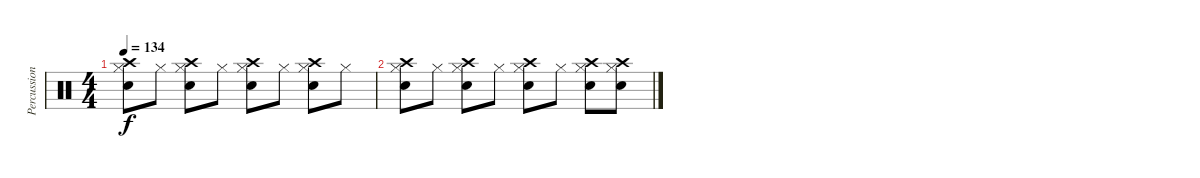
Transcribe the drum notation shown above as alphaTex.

\track ("Percussions" "Percussion") {instrument percussion}
\staff {score}
\articulation defaults
\ts (4 4)
\tempo 134
\clef neutral
\ks c
("Snare (hit) 2" "Hi-Hat (closed)" "Crash high (hit)").8{dy f} "Hi-Hat (closed)".8 ("Snare (hit) 2" "Hi-Hat (closed)" "Crash high (hit)").8 "Hi-Hat (closed)".8 ("Snare (hit) 2" "Hi-Hat (closed)" "Crash high (hit)").8 "Hi-Hat (closed)".8 ("Snare (hit) 2" "Hi-Hat (closed)" "Crash high (hit)").8 "Hi-Hat (closed)".8 |
("Snare (hit) 2" "Hi-Hat (closed)" "Crash high (hit)").8 "Hi-Hat (closed)".8 ("Snare (hit) 2" "Hi-Hat (closed)" "Crash high (hit)").8 "Hi-Hat (closed)".8 ("Snare (hit) 2" "Hi-Hat (closed)" "Crash high (hit)").8 "Hi-Hat (closed)".8 ("Snare (hit) 2" "Hi-Hat (closed)" "Crash high (hit)").8 ("Snare (hit) 2" "Hi-Hat (closed)" "Crash high (hit)").8
